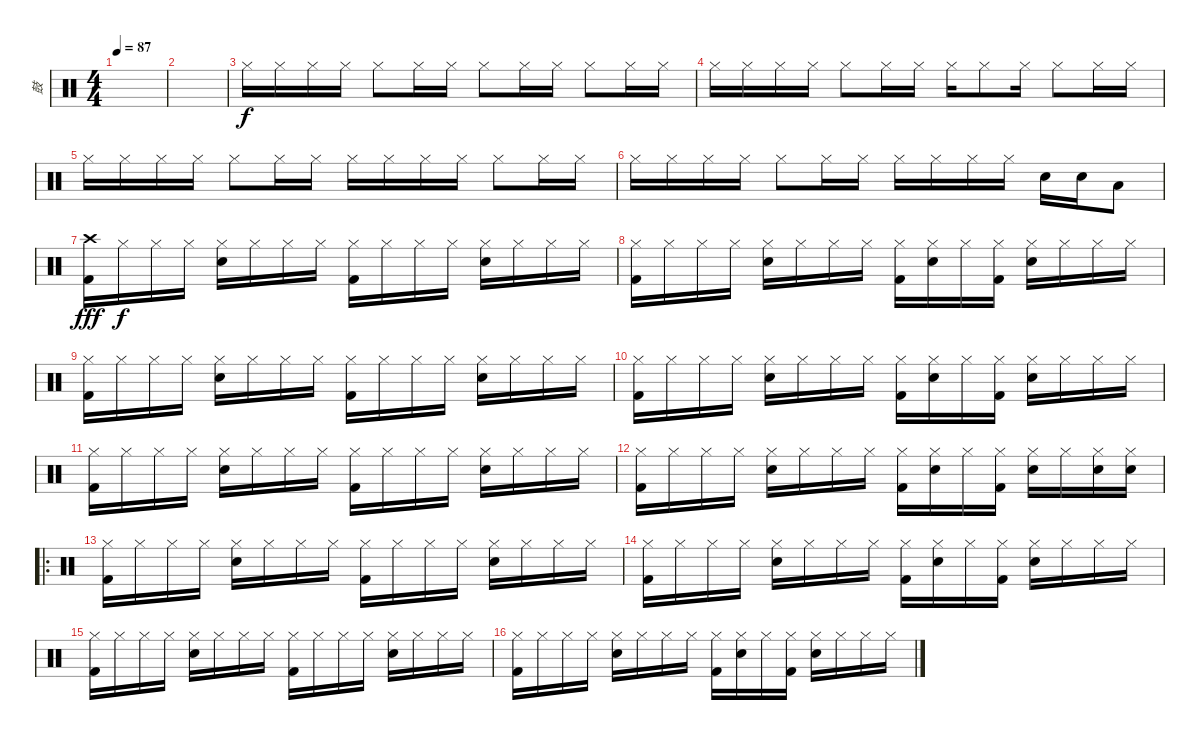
\track ("鼓" "鼓") {instrument percussion}
\staff {score}
\articulation defaults
\ts (4 4)
\tempo 87
\clef neutral
\ks c
|
|
"Hi-Hat (closed)".16 "Hi-Hat (closed)".16 "Hi-Hat (closed)".16 "Hi-Hat (closed)".16 "Hi-Hat (closed)".8 "Hi-Hat (closed)".16 "Hi-Hat (closed)".16 "Hi-Hat (closed)".8 "Hi-Hat (closed)".16 "Hi-Hat (closed)".16 "Hi-Hat (closed)".8 "Hi-Hat (closed)".16 "Hi-Hat (closed)".16 |
"Hi-Hat (closed)".16 "Hi-Hat (closed)".16 "Hi-Hat (closed)".16 "Hi-Hat (closed)".16 "Hi-Hat (closed)".8 "Hi-Hat (closed)".16 "Hi-Hat (closed)".16 "Hi-Hat (closed)".16 "Hi-Hat (closed)".8 "Hi-Hat (closed)".16 "Hi-Hat (closed)".8 "Hi-Hat (closed)".16 "Hi-Hat (closed)".16 |
"Hi-Hat (closed)".16 "Hi-Hat (closed)".16 "Hi-Hat (closed)".16 "Hi-Hat (closed)".16 "Hi-Hat (closed)".8 "Hi-Hat (closed)".16 "Hi-Hat (closed)".16 "Hi-Hat (closed)".16 "Hi-Hat (closed)".16 "Hi-Hat (closed)".16 "Hi-Hat (closed)".16 "Hi-Hat (closed)".8 "Hi-Hat (closed)".16 "Hi-Hat (closed)".16 |
"Hi-Hat (closed)".16 "Hi-Hat (closed)".16 "Hi-Hat (closed)".16 "Hi-Hat (closed)".16 "Hi-Hat (closed)".8 "Hi-Hat (closed)".16 "Hi-Hat (closed)".16 "Hi-Hat (closed)".16 "Hi-Hat (closed)".16 "Hi-Hat (closed)".16 "Hi-Hat (closed)".16 "Snare (hit) 2".16 "Snare (hit) 2".16 "Low Tom (hit)".8 |
("Crash high (hit)" "Kick (hit) 2").16{dy fff} "Hi-Hat (closed)".16{dy f} "Hi-Hat (closed)".16 "Hi-Hat (closed)".16 ("Hi-Hat (closed)" "Snare (hit) 2").16 "Hi-Hat (closed)".16 "Hi-Hat (closed)".16 "Hi-Hat (closed)".16 ("Hi-Hat (closed)" "Kick (hit) 2").16 "Hi-Hat (closed)".16 "Hi-Hat (closed)".16 "Hi-Hat (closed)".16 ("Hi-Hat (closed)" "Snare (hit) 2").16 "Hi-Hat (closed)".16 "Hi-Hat (closed)".16 "Hi-Hat (closed)".16 |
("Hi-Hat (closed)" "Kick (hit) 2").16 "Hi-Hat (closed)".16 "Hi-Hat (closed)".16 "Hi-Hat (closed)".16 ("Hi-Hat (closed)" "Snare (hit) 2").16 "Hi-Hat (closed)".16 "Hi-Hat (closed)".16 "Hi-Hat (closed)".16 ("Hi-Hat (closed)" "Kick (hit) 2").16 ("Hi-Hat (closed)" "Snare (hit) 2").16 "Hi-Hat (closed)".16 ("Hi-Hat (closed)" "Kick (hit) 2").16 ("Hi-Hat (closed)" "Snare (hit) 2").16 "Hi-Hat (closed)".16 "Hi-Hat (closed)".16 "Hi-Hat (closed)".16 |
("Hi-Hat (closed)" "Kick (hit) 2").16 "Hi-Hat (closed)".16 "Hi-Hat (closed)".16 "Hi-Hat (closed)".16 ("Hi-Hat (closed)" "Snare (hit) 2").16 "Hi-Hat (closed)".16 "Hi-Hat (closed)".16 "Hi-Hat (closed)".16 ("Hi-Hat (closed)" "Kick (hit) 2").16 "Hi-Hat (closed)".16 "Hi-Hat (closed)".16 "Hi-Hat (closed)".16 ("Hi-Hat (closed)" "Snare (hit) 2").16 "Hi-Hat (closed)".16 "Hi-Hat (closed)".16 "Hi-Hat (closed)".16 |
("Hi-Hat (closed)" "Kick (hit) 2").16 "Hi-Hat (closed)".16 "Hi-Hat (closed)".16 "Hi-Hat (closed)".16 ("Hi-Hat (closed)" "Snare (hit) 2").16 "Hi-Hat (closed)".16 "Hi-Hat (closed)".16 "Hi-Hat (closed)".16 ("Hi-Hat (closed)" "Kick (hit) 2").16 ("Hi-Hat (closed)" "Snare (hit) 2").16 "Hi-Hat (closed)".16 ("Hi-Hat (closed)" "Kick (hit) 2").16 ("Hi-Hat (closed)" "Snare (hit) 2").16 "Hi-Hat (closed)".16 "Hi-Hat (closed)".16 "Hi-Hat (closed)".16 |
("Hi-Hat (closed)" "Kick (hit) 2").16 "Hi-Hat (closed)".16 "Hi-Hat (closed)".16 "Hi-Hat (closed)".16 ("Hi-Hat (closed)" "Snare (hit) 2").16 "Hi-Hat (closed)".16 "Hi-Hat (closed)".16 "Hi-Hat (closed)".16 ("Hi-Hat (closed)" "Kick (hit) 2").16 "Hi-Hat (closed)".16 "Hi-Hat (closed)".16 "Hi-Hat (closed)".16 ("Hi-Hat (closed)" "Snare (hit) 2").16 "Hi-Hat (closed)".16 "Hi-Hat (closed)".16 "Hi-Hat (closed)".16 |
("Hi-Hat (closed)" "Kick (hit) 2").16 "Hi-Hat (closed)".16 "Hi-Hat (closed)".16 "Hi-Hat (closed)".16 ("Hi-Hat (closed)" "Snare (hit) 2").16 "Hi-Hat (closed)".16 "Hi-Hat (closed)".16 "Hi-Hat (closed)".16 ("Hi-Hat (closed)" "Kick (hit) 2").16 ("Hi-Hat (closed)" "Snare (hit) 2").16 "Hi-Hat (closed)".16 ("Hi-Hat (closed)" "Kick (hit) 2").16 ("Hi-Hat (closed)" "Snare (hit) 2").16 "Hi-Hat (closed)".16 ("Hi-Hat (closed)" "Snare (hit) 2").16 ("Hi-Hat (closed)" "Snare (hit) 2").16 |
\ro
("Hi-Hat (closed)" "Kick (hit) 2").16 "Hi-Hat (closed)".16 "Hi-Hat (closed)".16 "Hi-Hat (closed)".16 ("Hi-Hat (closed)" "Snare (hit) 2").16 "Hi-Hat (closed)".16 "Hi-Hat (closed)".16 "Hi-Hat (closed)".16 ("Hi-Hat (closed)" "Kick (hit) 2").16 "Hi-Hat (closed)".16 "Hi-Hat (closed)".16 "Hi-Hat (closed)".16 ("Hi-Hat (closed)" "Snare (hit) 2").16 "Hi-Hat (closed)".16 "Hi-Hat (closed)".16 "Hi-Hat (closed)".16 |
("Hi-Hat (closed)" "Kick (hit) 2").16 "Hi-Hat (closed)".16 "Hi-Hat (closed)".16 "Hi-Hat (closed)".16 ("Hi-Hat (closed)" "Snare (hit) 2").16 "Hi-Hat (closed)".16 "Hi-Hat (closed)".16 "Hi-Hat (closed)".16 ("Hi-Hat (closed)" "Kick (hit) 2").16 ("Hi-Hat (closed)" "Snare (hit) 2").16 "Hi-Hat (closed)".16 ("Hi-Hat (closed)" "Kick (hit) 2").16 ("Hi-Hat (closed)" "Snare (hit) 2").16 "Hi-Hat (closed)".16 "Hi-Hat (closed)".16 "Hi-Hat (closed)".16 |
("Hi-Hat (closed)" "Kick (hit) 2").16 "Hi-Hat (closed)".16 "Hi-Hat (closed)".16 "Hi-Hat (closed)".16 ("Hi-Hat (closed)" "Snare (hit) 2").16 "Hi-Hat (closed)".16 "Hi-Hat (closed)".16 "Hi-Hat (closed)".16 ("Hi-Hat (closed)" "Kick (hit) 2").16 "Hi-Hat (closed)".16 "Hi-Hat (closed)".16 "Hi-Hat (closed)".16 ("Hi-Hat (closed)" "Snare (hit) 2").16 "Hi-Hat (closed)".16 "Hi-Hat (closed)".16 "Hi-Hat (closed)".16 |
("Hi-Hat (closed)" "Kick (hit) 2").16 "Hi-Hat (closed)".16 "Hi-Hat (closed)".16 "Hi-Hat (closed)".16 ("Hi-Hat (closed)" "Snare (hit) 2").16 "Hi-Hat (closed)".16 "Hi-Hat (closed)".16 "Hi-Hat (closed)".16 ("Hi-Hat (closed)" "Kick (hit) 2").16 ("Hi-Hat (closed)" "Snare (hit) 2").16 "Hi-Hat (closed)".16 ("Hi-Hat (closed)" "Kick (hit) 2").16 ("Hi-Hat (closed)" "Snare (hit) 2").16 "Hi-Hat (closed)".16 "Hi-Hat (closed)".16 "Hi-Hat (closed)".16
